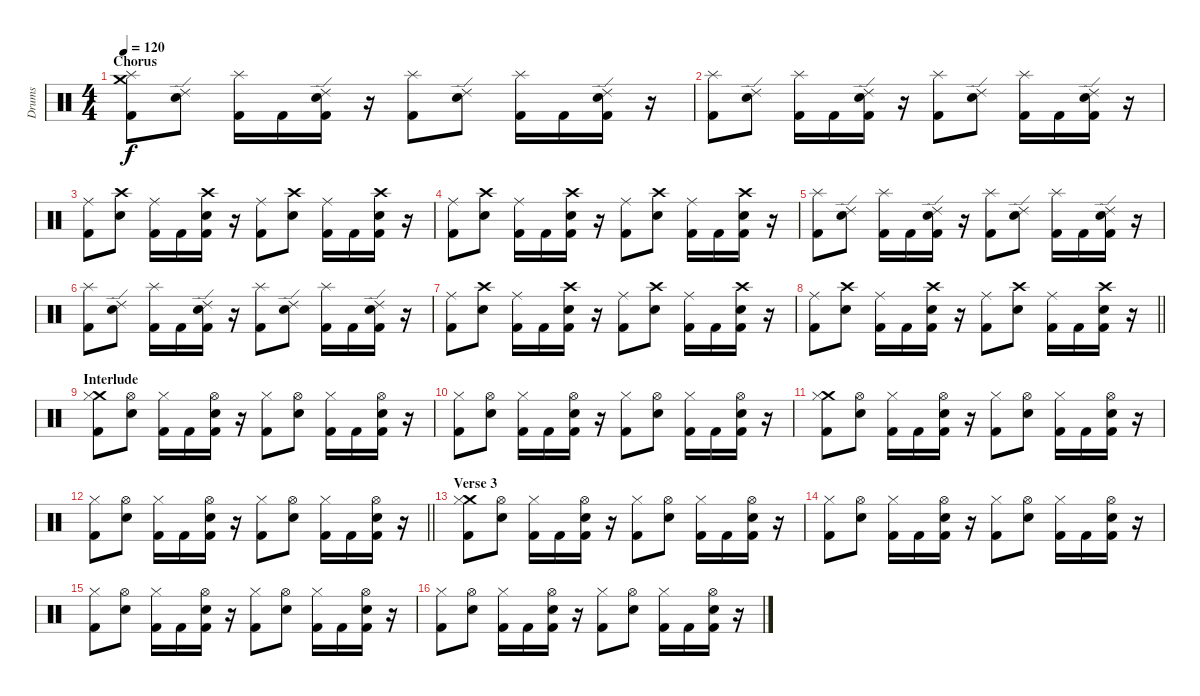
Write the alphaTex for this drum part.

\track ("Drums" "Drums") {instrument percussion}
\staff {score}
\articulation defaults
\ts (4 4)
\section ("" "Chorus")
\tempo 120
\clef neutral
\ks c
("Kick (hit) 2" "Crash medium (hit)" "Splash (hit)").8{dy f} ("Snare (hit) 2" "Ride (edge) 2").8 ("Kick (hit) 2" "Splash (hit)").16 "Kick (hit) 2".16 ("Kick (hit) 2" "Snare (hit) 2" "Ride (edge) 2").16 r.16 ("Kick (hit) 2" "Splash (hit)").8 ("Snare (hit) 2" "Ride (edge) 2").8 ("Kick (hit) 2" "Splash (hit)").16 "Kick (hit) 2".16 ("Kick (hit) 2" "Snare (hit) 2" "Ride (edge) 2").16 r.16 |
("Kick (hit) 2" "Splash (hit)").8 ("Snare (hit) 2" "Ride (edge) 2").8 ("Kick (hit) 2" "Splash (hit)").16 "Kick (hit) 2".16 ("Kick (hit) 2" "Snare (hit) 2" "Ride (edge) 2").16 r.16 ("Kick (hit) 2" "Splash (hit)").8 ("Snare (hit) 2" "Ride (edge) 2").8 ("Kick (hit) 2" "Splash (hit)").16 "Kick (hit) 2".16 ("Kick (hit) 2" "Snare (hit) 2" "Ride (edge) 2").16 r.16 |
("Kick (hit) 2" "Ride (middle)").8 ("Snare (hit) 2" "Crash high (hit)").8 ("Kick (hit) 2" "Ride (middle)").16 "Kick (hit) 2".16 ("Kick (hit) 2" "Snare (hit) 2" "Crash high (hit)").16 r.16 ("Kick (hit) 2" "Ride (middle)").8 ("Snare (hit) 2" "Crash high (hit)").8 ("Kick (hit) 2" "Ride (middle)").16 "Kick (hit) 2".16 ("Kick (hit) 2" "Snare (hit) 2" "Crash high (hit)").16 r.16 |
("Kick (hit) 2" "Ride (middle)").8 ("Snare (hit) 2" "Crash high (hit)").8 ("Kick (hit) 2" "Ride (middle)").16 "Kick (hit) 2".16 ("Kick (hit) 2" "Snare (hit) 2" "Crash high (hit)").16 r.16 ("Kick (hit) 2" "Ride (middle)").8 ("Snare (hit) 2" "Crash high (hit)").8 ("Kick (hit) 2" "Ride (middle)").16 "Kick (hit) 2".16 ("Kick (hit) 2" "Snare (hit) 2" "Crash high (hit)").16 r.16 |
("Kick (hit) 2" "Splash (hit)").8 ("Snare (hit) 2" "Ride (edge) 2").8 ("Kick (hit) 2" "Splash (hit)").16 "Kick (hit) 2".16 ("Kick (hit) 2" "Snare (hit) 2" "Ride (edge) 2").16 r.16 ("Kick (hit) 2" "Splash (hit)").8 ("Snare (hit) 2" "Ride (edge) 2").8 ("Kick (hit) 2" "Splash (hit)").16 "Kick (hit) 2".16 ("Kick (hit) 2" "Snare (hit) 2" "Ride (edge) 2").16 r.16 |
("Kick (hit) 2" "Splash (hit)").8 ("Snare (hit) 2" "Ride (edge) 2").8 ("Kick (hit) 2" "Splash (hit)").16 "Kick (hit) 2".16 ("Kick (hit) 2" "Snare (hit) 2" "Ride (edge) 2").16 r.16 ("Kick (hit) 2" "Splash (hit)").8 ("Snare (hit) 2" "Ride (edge) 2").8 ("Kick (hit) 2" "Splash (hit)").16 "Kick (hit) 2".16 ("Kick (hit) 2" "Snare (hit) 2" "Ride (edge) 2").16 r.16 |
("Kick (hit) 2" "Ride (middle)").8 ("Snare (hit) 2" "Crash high (hit)").8 ("Kick (hit) 2" "Ride (middle)").16 "Kick (hit) 2".16 ("Kick (hit) 2" "Snare (hit) 2" "Crash high (hit)").16 r.16 ("Kick (hit) 2" "Ride (middle)").8 ("Snare (hit) 2" "Crash high (hit)").8 ("Kick (hit) 2" "Ride (middle)").16 "Kick (hit) 2".16 ("Kick (hit) 2" "Snare (hit) 2" "Crash high (hit)").16 r.16 |
\barLineRight lightlight
("Kick (hit) 2" "Ride (middle)").8 ("Snare (hit) 2" "Crash high (hit)").8 ("Kick (hit) 2" "Ride (middle)").16 "Kick (hit) 2".16 ("Kick (hit) 2" "Snare (hit) 2" "Crash high (hit)").16 r.16 ("Kick (hit) 2" "Ride (middle)").8 ("Snare (hit) 2" "Crash high (hit)").8 ("Kick (hit) 2" "Ride (middle)").16 "Kick (hit) 2".16 ("Kick (hit) 2" "Snare (hit) 2" "Crash high (hit)").16 r.16 |
\section ("" "Interlude")
("Kick (hit) 2" "Crash medium (hit)" "Hi-Hat (closed)").8 ("Snare (hit) 2" "Hi-Hat (open)").8 ("Kick (hit) 2" "Hi-Hat (closed)").16 "Kick (hit) 2".16 ("Kick (hit) 2" "Snare (hit) 2" "Hi-Hat (open)").16 r.16 ("Kick (hit) 2" "Hi-Hat (closed)").8 ("Snare (hit) 2" "Hi-Hat (open)").8 ("Kick (hit) 2" "Hi-Hat (closed)").16 "Kick (hit) 2".16 ("Kick (hit) 2" "Snare (hit) 2" "Hi-Hat (open)").16 r.16 |
("Kick (hit) 2" "Hi-Hat (closed)").8 ("Snare (hit) 2" "Hi-Hat (open)").8 ("Kick (hit) 2" "Hi-Hat (closed)").16 "Kick (hit) 2".16 ("Kick (hit) 2" "Snare (hit) 2" "Hi-Hat (open)").16 r.16 ("Kick (hit) 2" "Hi-Hat (closed)").8 ("Snare (hit) 2" "Hi-Hat (open)").8 ("Kick (hit) 2" "Hi-Hat (closed)").16 "Kick (hit) 2".16 ("Kick (hit) 2" "Snare (hit) 2" "Hi-Hat (open)").16 r.16 |
("Kick (hit) 2" "Crash medium (hit)" "Hi-Hat (closed)").8 ("Snare (hit) 2" "Hi-Hat (open)").8 ("Kick (hit) 2" "Hi-Hat (closed)").16 "Kick (hit) 2".16 ("Kick (hit) 2" "Snare (hit) 2" "Hi-Hat (open)").16 r.16 ("Kick (hit) 2" "Hi-Hat (closed)").8 ("Snare (hit) 2" "Hi-Hat (open)").8 ("Kick (hit) 2" "Hi-Hat (closed)").16 "Kick (hit) 2".16 ("Kick (hit) 2" "Snare (hit) 2" "Hi-Hat (open)").16 r.16 |
\barLineRight lightlight
("Kick (hit) 2" "Hi-Hat (closed)").8 ("Snare (hit) 2" "Hi-Hat (open)").8 ("Kick (hit) 2" "Hi-Hat (closed)").16 "Kick (hit) 2".16 ("Kick (hit) 2" "Snare (hit) 2" "Hi-Hat (open)").16 r.16 ("Kick (hit) 2" "Hi-Hat (closed)").8 ("Snare (hit) 2" "Hi-Hat (open)").8 ("Kick (hit) 2" "Hi-Hat (closed)").16 "Kick (hit) 2".16 ("Kick (hit) 2" "Snare (hit) 2" "Hi-Hat (open)").16 r.16 |
\section ("" "Verse 3")
("Kick (hit) 2" "Crash medium (hit)" "Hi-Hat (closed)").8 ("Snare (hit) 2" "Hi-Hat (open)").8 ("Kick (hit) 2" "Hi-Hat (closed)").16 "Kick (hit) 2".16 ("Kick (hit) 2" "Snare (hit) 2" "Hi-Hat (open)").16 r.16 ("Kick (hit) 2" "Hi-Hat (closed)").8 ("Snare (hit) 2" "Hi-Hat (open)").8 ("Kick (hit) 2" "Hi-Hat (closed)").16 "Kick (hit) 2".16 ("Kick (hit) 2" "Snare (hit) 2" "Hi-Hat (open)").16 r.16 |
("Kick (hit) 2" "Hi-Hat (closed)").8 ("Snare (hit) 2" "Hi-Hat (open)").8 ("Kick (hit) 2" "Hi-Hat (closed)").16 "Kick (hit) 2".16 ("Kick (hit) 2" "Snare (hit) 2" "Hi-Hat (open)").16 r.16 ("Kick (hit) 2" "Hi-Hat (closed)").8 ("Snare (hit) 2" "Hi-Hat (open)").8 ("Kick (hit) 2" "Hi-Hat (closed)").16 "Kick (hit) 2".16 ("Kick (hit) 2" "Snare (hit) 2" "Hi-Hat (open)").16 r.16 |
("Kick (hit) 2" "Hi-Hat (closed)").8 ("Snare (hit) 2" "Hi-Hat (open)").8 ("Kick (hit) 2" "Hi-Hat (closed)").16 "Kick (hit) 2".16 ("Kick (hit) 2" "Snare (hit) 2" "Hi-Hat (open)").16 r.16 ("Kick (hit) 2" "Hi-Hat (closed)").8 ("Snare (hit) 2" "Hi-Hat (open)").8 ("Kick (hit) 2" "Hi-Hat (closed)").16 "Kick (hit) 2".16 ("Kick (hit) 2" "Snare (hit) 2" "Hi-Hat (open)").16 r.16 |
("Kick (hit) 2" "Hi-Hat (closed)").8 ("Snare (hit) 2" "Hi-Hat (open)").8 ("Kick (hit) 2" "Hi-Hat (closed)").16 "Kick (hit) 2".16 ("Kick (hit) 2" "Snare (hit) 2" "Hi-Hat (open)").16 r.16 ("Kick (hit) 2" "Hi-Hat (closed)").8 ("Snare (hit) 2" "Hi-Hat (open)").8 ("Kick (hit) 2" "Hi-Hat (closed)").16 "Kick (hit) 2".16 ("Kick (hit) 2" "Snare (hit) 2" "Hi-Hat (open)").16 r.16
